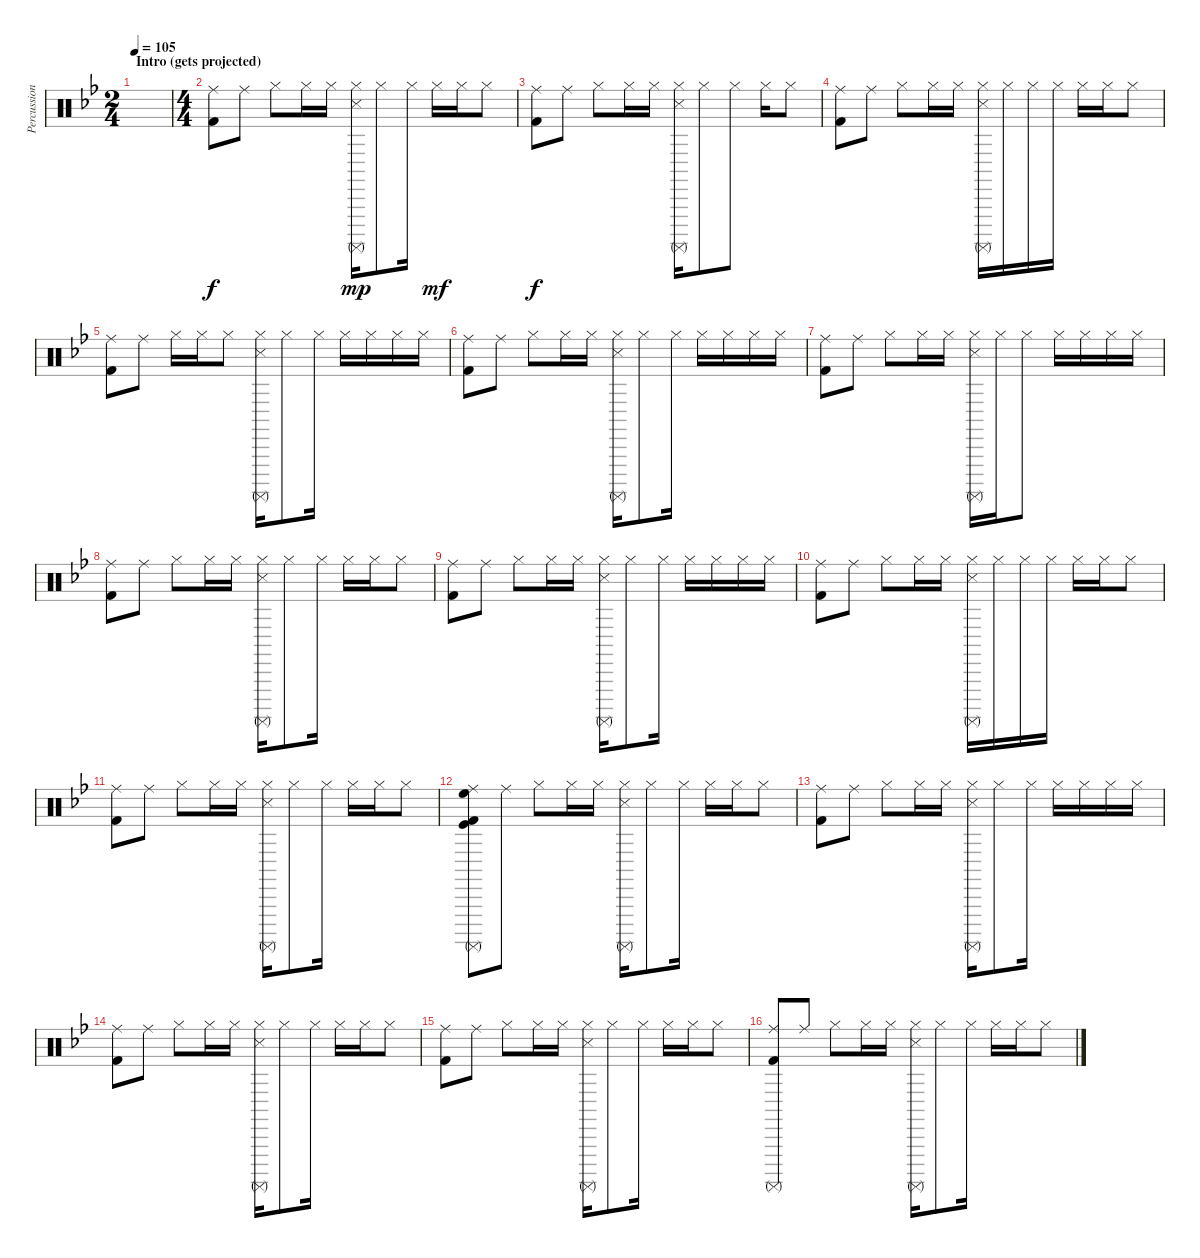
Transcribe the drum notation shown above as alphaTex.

\track ("Percussion" "Percussion") {instrument percussion}
\staff {score}
\articulation defaults
\ts (2 4)
\section ("" "Intro (gets projected)")
\tempo 105
\tempo 90
\tempo 105
\clef neutral
\ks bb
|
\ts (4 4)
("Ride (middle)" "Kick (hit) 2").8 "Ride (middle)".8 "Hi-Hat (closed)".8 "Hi-Hat (closed)".16 "Hi-Hat (closed)".16 ("Hi-Hat (closed)" "Surdo (mute)" "Snare (side stick) 3").16{dy mp} "Hi-Hat (closed)".8 "Hi-Hat (closed)".16 "Hi-Hat (closed)".16{dy mf} "Hi-Hat (closed)".16 "Hi-Hat (closed)".8 |
("Ride (middle)" "Kick (hit) 2").8{dy f} "Ride (middle)".8 "Hi-Hat (closed)".8 "Hi-Hat (closed)".16 "Hi-Hat (closed)".16 ("Hi-Hat (closed)" "Surdo (mute)" "Snare (side stick) 3").16 "Hi-Hat (closed)".8 "Hi-Hat (closed)".8 "Hi-Hat (closed)".16 "Hi-Hat (closed)".8 |
("Ride (middle)" "Kick (hit) 2").8 "Ride (middle)".8 "Hi-Hat (closed)".8 "Hi-Hat (closed)".16 "Hi-Hat (closed)".16 ("Hi-Hat (closed)" "Surdo (mute)" "Snare (side stick) 3").16 "Hi-Hat (closed)".16 "Hi-Hat (closed)".16 "Hi-Hat (closed)".16 "Hi-Hat (closed)".16 "Hi-Hat (closed)".16 "Hi-Hat (closed)".8 |
("Ride (middle)" "Kick (hit) 2").8 "Ride (middle)".8 "Hi-Hat (closed)".16 "Hi-Hat (closed)".16 "Hi-Hat (closed)".8 ("Hi-Hat (closed)" "Surdo (mute)" "Snare (side stick) 3").16 "Hi-Hat (closed)".8 "Hi-Hat (closed)".16 "Hi-Hat (closed)".16 "Hi-Hat (closed)".16 "Hi-Hat (closed)".16 "Hi-Hat (closed)".16 |
("Ride (middle)" "Kick (hit) 2").8 "Ride (middle)".8 "Hi-Hat (closed)".8 "Hi-Hat (closed)".16 "Hi-Hat (closed)".16 ("Hi-Hat (closed)" "Surdo (mute)" "Snare (side stick) 3").16 "Hi-Hat (closed)".8 "Hi-Hat (closed)".16 "Hi-Hat (closed)".16 "Hi-Hat (closed)".16 "Hi-Hat (closed)".16 "Hi-Hat (closed)".16 |
("Ride (middle)" "Kick (hit) 2").8 "Ride (middle)".8 "Hi-Hat (closed)".8 "Hi-Hat (closed)".16 "Hi-Hat (closed)".16 ("Hi-Hat (closed)" "Surdo (mute)" "Snare (side stick) 3").16 "Hi-Hat (closed)".16 "Hi-Hat (closed)".8 "Hi-Hat (closed)".16 "Hi-Hat (closed)".16 "Hi-Hat (closed)".16 "Hi-Hat (closed)".16 |
("Ride (middle)" "Kick (hit) 2").8 "Ride (middle)".8 "Hi-Hat (closed)".8 "Hi-Hat (closed)".16 "Hi-Hat (closed)".16 ("Hi-Hat (closed)" "Surdo (mute)" "Snare (side stick) 3").16 "Hi-Hat (closed)".8 "Hi-Hat (closed)".16 "Hi-Hat (closed)".16 "Hi-Hat (closed)".16 "Hi-Hat (closed)".8 |
("Ride (middle)" "Kick (hit) 2").8 "Ride (middle)".8 "Hi-Hat (closed)".8 "Hi-Hat (closed)".16 "Hi-Hat (closed)".16 ("Hi-Hat (closed)" "Surdo (mute)" "Snare (side stick) 3").16 "Hi-Hat (closed)".8 "Hi-Hat (closed)".16 "Hi-Hat (closed)".16 "Hi-Hat (closed)".16 "Hi-Hat (closed)".16 "Hi-Hat (closed)".16 |
("Ride (middle)" "Kick (hit) 2").8 "Ride (middle)".8 "Hi-Hat (closed)".8 "Hi-Hat (closed)".16 "Hi-Hat (closed)".16 ("Hi-Hat (closed)" "Surdo (mute)" "Snare (side stick) 3").16 "Hi-Hat (closed)".16 "Hi-Hat (closed)".16 "Hi-Hat (closed)".16 "Hi-Hat (closed)".16 "Hi-Hat (closed)".16 "Hi-Hat (closed)".8 |
("Ride (middle)" "Kick (hit) 2").8 "Ride (middle)".8 "Hi-Hat (closed)".8 "Hi-Hat (closed)".16 "Hi-Hat (closed)".16 ("Hi-Hat (closed)" "Surdo (mute)" "Snare (side stick) 3").16 "Hi-Hat (closed)".8 "Hi-Hat (closed)".16 "Hi-Hat (closed)".16 "Hi-Hat (closed)".16 "Hi-Hat (closed)".8 |
("Ride (middle)" "Surdo (mute)" "High Floor Tom (hit)" "Kick (hit)" "Kick (hit) 2").8 "Ride (middle)".8 "Hi-Hat (closed)".8 "Hi-Hat (closed)".16 "Hi-Hat (closed)".16 ("Hi-Hat (closed)" "Surdo (mute)" "Snare (side stick) 3").16 "Hi-Hat (closed)".8 "Hi-Hat (closed)".16 "Hi-Hat (closed)".16 "Hi-Hat (closed)".16 "Hi-Hat (closed)".8 |
("Ride (middle)" "Kick (hit) 2").8 "Ride (middle)".8 "Hi-Hat (closed)".8 "Hi-Hat (closed)".16 "Hi-Hat (closed)".16 ("Hi-Hat (closed)" "Surdo (mute)" "Snare (side stick) 3").16 "Hi-Hat (closed)".8 "Hi-Hat (closed)".16 "Hi-Hat (closed)".16 "Hi-Hat (closed)".16 "Hi-Hat (closed)".16 "Hi-Hat (closed)".16 |
("Ride (middle)" "Kick (hit) 2").8 "Ride (middle)".8 "Hi-Hat (closed)".8 "Hi-Hat (closed)".16 "Hi-Hat (closed)".16 ("Hi-Hat (closed)" "Surdo (mute)" "Snare (side stick) 3").16 "Hi-Hat (closed)".8 "Hi-Hat (closed)".16 "Hi-Hat (closed)".16 "Hi-Hat (closed)".16 "Hi-Hat (closed)".8 |
("Ride (middle)" "Kick (hit) 2").8 "Ride (middle)".8 "Hi-Hat (closed)".8 "Hi-Hat (closed)".16 "Hi-Hat (closed)".16 ("Hi-Hat (closed)" "Surdo (mute)" "Snare (side stick) 3").16 "Hi-Hat (closed)".8 "Hi-Hat (closed)".16 "Hi-Hat (closed)".16 "Hi-Hat (closed)".16 "Hi-Hat (closed)".8 |
("Ride (middle)" "Surdo (mute)" "Kick (hit) 2").8 "Ride (middle)".8 "Hi-Hat (closed)".8 "Hi-Hat (closed)".16 "Hi-Hat (closed)".16 ("Hi-Hat (closed)" "Surdo (mute)" "Snare (side stick) 3").16 "Hi-Hat (closed)".8 "Hi-Hat (closed)".16 "Hi-Hat (closed)".16 "Hi-Hat (closed)".16 "Hi-Hat (closed)".8
